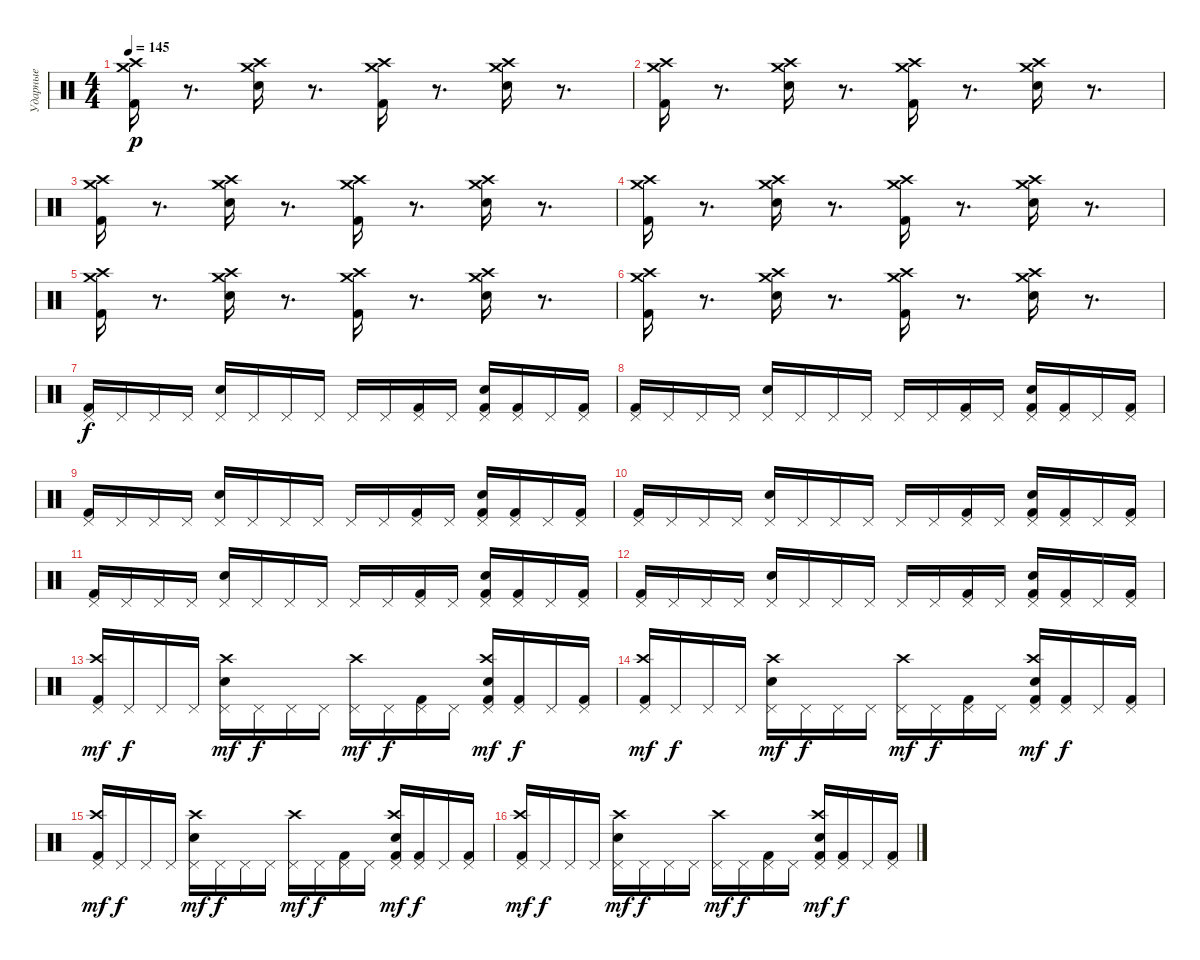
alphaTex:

\track ("Ударные" "Ударные") {instrument percussion}
\staff {score}
\articulation defaults
\ts (4 4)
\tempo 145
\clef neutral
\ks c
("Kick (hit) 2" "Crash high (hit)" "Crash medium (hit)").16{dy p} r.8{d} ("Crash high (hit)" "Crash medium (hit)" "Electric Snare (hit)").16 r.8{d} ("Crash high (hit)" "Crash medium (hit)" "Kick (hit) 2").16 r.8{d} ("Crash high (hit)" "Crash medium (hit)" "Electric Snare (hit)").16 r.8{d} |
("Kick (hit) 2" "Crash high (hit)" "Crash medium (hit)").16 r.8{d} ("Crash high (hit)" "Crash medium (hit)" "Electric Snare (hit)").16 r.8{d} ("Crash high (hit)" "Crash medium (hit)" "Kick (hit) 2").16 r.8{d} ("Crash high (hit)" "Crash medium (hit)" "Electric Snare (hit)").16 r.8{d} |
("Kick (hit) 2" "Crash high (hit)" "Crash medium (hit)").16 r.8{d} ("Crash high (hit)" "Crash medium (hit)" "Electric Snare (hit)").16 r.8{d} ("Crash high (hit)" "Crash medium (hit)" "Kick (hit) 2").16 r.8{d} ("Crash high (hit)" "Crash medium (hit)" "Electric Snare (hit)").16 r.8{d} |
("Kick (hit) 2" "Crash high (hit)" "Crash medium (hit)").16 r.8{d} ("Crash high (hit)" "Crash medium (hit)" "Electric Snare (hit)").16 r.8{d} ("Crash high (hit)" "Crash medium (hit)" "Kick (hit) 2").16 r.8{d} ("Crash high (hit)" "Crash medium (hit)" "Electric Snare (hit)").16 r.8{d} |
("Kick (hit) 2" "Crash high (hit)" "Crash medium (hit)").16 r.8{d} ("Crash high (hit)" "Crash medium (hit)" "Electric Snare (hit)").16 r.8{d} ("Crash high (hit)" "Crash medium (hit)" "Kick (hit) 2").16 r.8{d} ("Crash high (hit)" "Crash medium (hit)" "Electric Snare (hit)").16 r.8{d} |
("Kick (hit) 2" "Crash high (hit)" "Crash medium (hit)").16 r.8{d} ("Crash high (hit)" "Crash medium (hit)" "Electric Snare (hit)").16 r.8{d} ("Crash high (hit)" "Crash medium (hit)" "Kick (hit) 2").16 r.8{d} ("Crash high (hit)" "Crash medium (hit)" "Electric Snare (hit)").16 r.8{d} |
("Kick (hit) 2" "Pedal Hi-Hat (hit)").16{dy f} "Pedal Hi-Hat (hit)".16 "Pedal Hi-Hat (hit)".16 "Pedal Hi-Hat (hit)".16 ("Electric Snare (hit)" "Pedal Hi-Hat (hit)").16 "Pedal Hi-Hat (hit)".16 "Pedal Hi-Hat (hit)".16 "Pedal Hi-Hat (hit)".16 "Pedal Hi-Hat (hit)".16 "Pedal Hi-Hat (hit)".16 ("Kick (hit) 2" "Pedal Hi-Hat (hit)").16 "Pedal Hi-Hat (hit)".16 ("Kick (hit) 2" "Electric Snare (hit)" "Pedal Hi-Hat (hit)").16 ("Kick (hit) 2" "Pedal Hi-Hat (hit)").16 "Pedal Hi-Hat (hit)".16 ("Kick (hit) 2" "Pedal Hi-Hat (hit)").16 |
("Kick (hit) 2" "Pedal Hi-Hat (hit)").16 "Pedal Hi-Hat (hit)".16 "Pedal Hi-Hat (hit)".16 "Pedal Hi-Hat (hit)".16 ("Electric Snare (hit)" "Pedal Hi-Hat (hit)").16 "Pedal Hi-Hat (hit)".16 "Pedal Hi-Hat (hit)".16 "Pedal Hi-Hat (hit)".16 "Pedal Hi-Hat (hit)".16 "Pedal Hi-Hat (hit)".16 ("Kick (hit) 2" "Pedal Hi-Hat (hit)").16 "Pedal Hi-Hat (hit)".16 ("Kick (hit) 2" "Electric Snare (hit)" "Pedal Hi-Hat (hit)").16 ("Kick (hit) 2" "Pedal Hi-Hat (hit)").16 "Pedal Hi-Hat (hit)".16 ("Kick (hit) 2" "Pedal Hi-Hat (hit)").16 |
("Kick (hit) 2" "Pedal Hi-Hat (hit)").16 "Pedal Hi-Hat (hit)".16 "Pedal Hi-Hat (hit)".16 "Pedal Hi-Hat (hit)".16 ("Electric Snare (hit)" "Pedal Hi-Hat (hit)").16 "Pedal Hi-Hat (hit)".16 "Pedal Hi-Hat (hit)".16 "Pedal Hi-Hat (hit)".16 "Pedal Hi-Hat (hit)".16 "Pedal Hi-Hat (hit)".16 ("Kick (hit) 2" "Pedal Hi-Hat (hit)").16 "Pedal Hi-Hat (hit)".16 ("Kick (hit) 2" "Electric Snare (hit)" "Pedal Hi-Hat (hit)").16 ("Kick (hit) 2" "Pedal Hi-Hat (hit)").16 "Pedal Hi-Hat (hit)".16 ("Kick (hit) 2" "Pedal Hi-Hat (hit)").16 |
("Kick (hit) 2" "Pedal Hi-Hat (hit)").16 "Pedal Hi-Hat (hit)".16 "Pedal Hi-Hat (hit)".16 "Pedal Hi-Hat (hit)".16 ("Electric Snare (hit)" "Pedal Hi-Hat (hit)").16 "Pedal Hi-Hat (hit)".16 "Pedal Hi-Hat (hit)".16 "Pedal Hi-Hat (hit)".16 "Pedal Hi-Hat (hit)".16 "Pedal Hi-Hat (hit)".16 ("Kick (hit) 2" "Pedal Hi-Hat (hit)").16 "Pedal Hi-Hat (hit)".16 ("Kick (hit) 2" "Electric Snare (hit)" "Pedal Hi-Hat (hit)").16 ("Kick (hit) 2" "Pedal Hi-Hat (hit)").16 "Pedal Hi-Hat (hit)".16 ("Kick (hit) 2" "Pedal Hi-Hat (hit)").16 |
("Kick (hit) 2" "Pedal Hi-Hat (hit)").16 "Pedal Hi-Hat (hit)".16 "Pedal Hi-Hat (hit)".16 "Pedal Hi-Hat (hit)".16 ("Electric Snare (hit)" "Pedal Hi-Hat (hit)").16 "Pedal Hi-Hat (hit)".16 "Pedal Hi-Hat (hit)".16 "Pedal Hi-Hat (hit)".16 "Pedal Hi-Hat (hit)".16 "Pedal Hi-Hat (hit)".16 ("Kick (hit) 2" "Pedal Hi-Hat (hit)").16 "Pedal Hi-Hat (hit)".16 ("Kick (hit) 2" "Electric Snare (hit)" "Pedal Hi-Hat (hit)").16 ("Kick (hit) 2" "Pedal Hi-Hat (hit)").16 "Pedal Hi-Hat (hit)".16 ("Kick (hit) 2" "Pedal Hi-Hat (hit)").16 |
("Kick (hit) 2" "Pedal Hi-Hat (hit)").16 "Pedal Hi-Hat (hit)".16 "Pedal Hi-Hat (hit)".16 "Pedal Hi-Hat (hit)".16 ("Electric Snare (hit)" "Pedal Hi-Hat (hit)").16 "Pedal Hi-Hat (hit)".16 "Pedal Hi-Hat (hit)".16 "Pedal Hi-Hat (hit)".16 "Pedal Hi-Hat (hit)".16 "Pedal Hi-Hat (hit)".16 ("Kick (hit) 2" "Pedal Hi-Hat (hit)").16 "Pedal Hi-Hat (hit)".16 ("Kick (hit) 2" "Electric Snare (hit)" "Pedal Hi-Hat (hit)").16 ("Kick (hit) 2" "Pedal Hi-Hat (hit)").16 "Pedal Hi-Hat (hit)".16 ("Kick (hit) 2" "Pedal Hi-Hat (hit)").16 |
("Kick (hit) 2" "Pedal Hi-Hat (hit)" "Crash high (hit)").16{dy mf} "Pedal Hi-Hat (hit)".16{dy f} "Pedal Hi-Hat (hit)".16 "Pedal Hi-Hat (hit)".16 ("Electric Snare (hit)" "Pedal Hi-Hat (hit)" "Crash high (hit)").16{dy mf} "Pedal Hi-Hat (hit)".16{dy f} "Pedal Hi-Hat (hit)".16 "Pedal Hi-Hat (hit)".16 ("Pedal Hi-Hat (hit)" "Crash high (hit)").16{dy mf} "Pedal Hi-Hat (hit)".16{dy f} ("Kick (hit) 2" "Pedal Hi-Hat (hit)").16 "Pedal Hi-Hat (hit)".16 ("Kick (hit) 2" "Electric Snare (hit)" "Pedal Hi-Hat (hit)" "Crash high (hit)").16{dy mf} ("Kick (hit) 2" "Pedal Hi-Hat (hit)").16{dy f} "Pedal Hi-Hat (hit)".16 ("Kick (hit) 2" "Pedal Hi-Hat (hit)").16 |
("Crash high (hit)" "Kick (hit) 2" "Pedal Hi-Hat (hit)").16{dy mf} "Pedal Hi-Hat (hit)".16{dy f} "Pedal Hi-Hat (hit)".16 "Pedal Hi-Hat (hit)".16 ("Crash high (hit)" "Electric Snare (hit)" "Pedal Hi-Hat (hit)").16{dy mf} "Pedal Hi-Hat (hit)".16{dy f} "Pedal Hi-Hat (hit)".16 "Pedal Hi-Hat (hit)".16 ("Crash high (hit)" "Pedal Hi-Hat (hit)").16{dy mf} "Pedal Hi-Hat (hit)".16{dy f} ("Kick (hit) 2" "Pedal Hi-Hat (hit)").16 "Pedal Hi-Hat (hit)".16 ("Crash high (hit)" "Kick (hit) 2" "Electric Snare (hit)" "Pedal Hi-Hat (hit)").16{dy mf} ("Kick (hit) 2" "Pedal Hi-Hat (hit)").16{dy f} "Pedal Hi-Hat (hit)".16 ("Kick (hit) 2" "Pedal Hi-Hat (hit)").16 |
("Crash high (hit)" "Kick (hit) 2" "Pedal Hi-Hat (hit)").16{dy mf} "Pedal Hi-Hat (hit)".16{dy f} "Pedal Hi-Hat (hit)".16 "Pedal Hi-Hat (hit)".16 ("Crash high (hit)" "Electric Snare (hit)" "Pedal Hi-Hat (hit)").16{dy mf} "Pedal Hi-Hat (hit)".16{dy f} "Pedal Hi-Hat (hit)".16 "Pedal Hi-Hat (hit)".16 ("Crash high (hit)" "Pedal Hi-Hat (hit)").16{dy mf} "Pedal Hi-Hat (hit)".16{dy f} ("Kick (hit) 2" "Pedal Hi-Hat (hit)").16 "Pedal Hi-Hat (hit)".16 ("Crash high (hit)" "Kick (hit) 2" "Electric Snare (hit)" "Pedal Hi-Hat (hit)").16{dy mf} ("Kick (hit) 2" "Pedal Hi-Hat (hit)").16{dy f} "Pedal Hi-Hat (hit)".16 ("Kick (hit) 2" "Pedal Hi-Hat (hit)").16 |
("Crash high (hit)" "Kick (hit) 2" "Pedal Hi-Hat (hit)").16{dy mf} "Pedal Hi-Hat (hit)".16{dy f} "Pedal Hi-Hat (hit)".16 "Pedal Hi-Hat (hit)".16 ("Crash high (hit)" "Electric Snare (hit)" "Pedal Hi-Hat (hit)").16{dy mf} "Pedal Hi-Hat (hit)".16{dy f} "Pedal Hi-Hat (hit)".16 "Pedal Hi-Hat (hit)".16 ("Crash high (hit)" "Pedal Hi-Hat (hit)").16{dy mf} "Pedal Hi-Hat (hit)".16{dy f} ("Kick (hit) 2" "Pedal Hi-Hat (hit)").16 "Pedal Hi-Hat (hit)".16 ("Crash high (hit)" "Kick (hit) 2" "Electric Snare (hit)" "Pedal Hi-Hat (hit)").16{dy mf} ("Kick (hit) 2" "Pedal Hi-Hat (hit)").16{dy f} "Pedal Hi-Hat (hit)".16 ("Kick (hit) 2" "Pedal Hi-Hat (hit)").16
